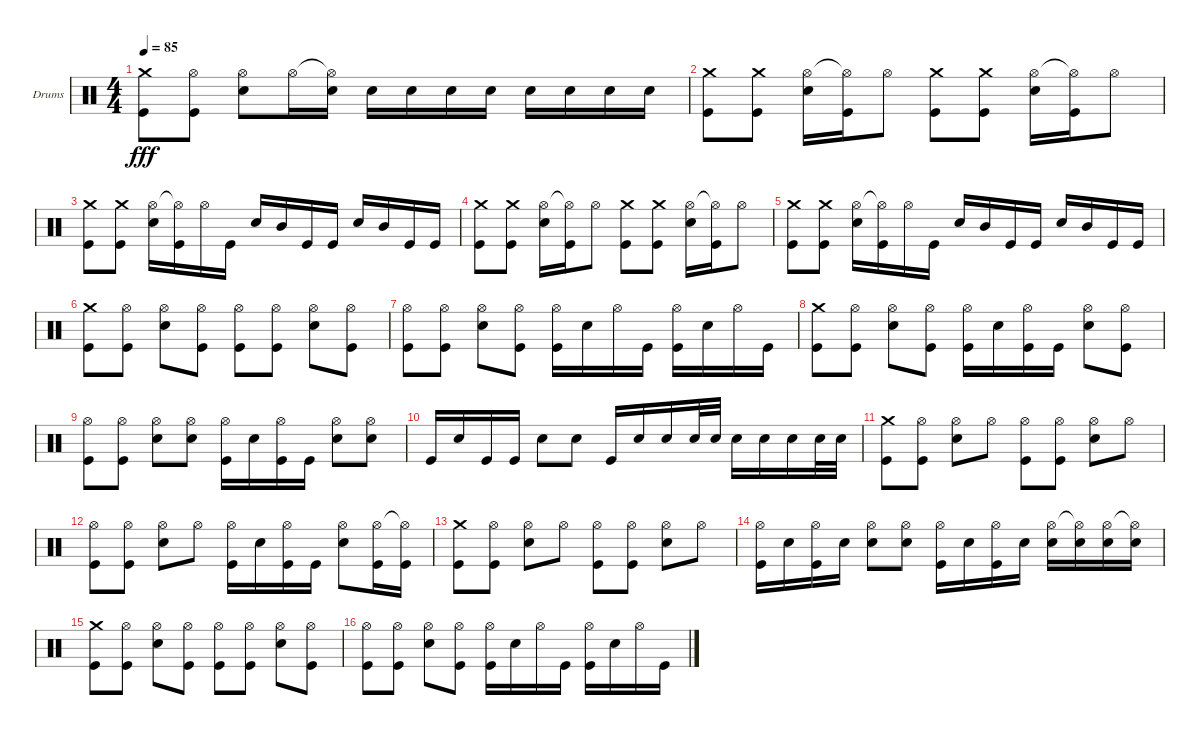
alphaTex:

\defaultSystemsLayout 4
\bracketExtendMode groupsimilarinstruments
\firstSystemTrackNameOrientation horizontal
\otherSystemsTrackNameOrientation horizontal
\track ("Drumkit" "Drums") {instrument percussion}
\staff {score}
\articulation defaults
\ts (4 4)
\tempo 85
\clef neutral
\scale
0.333333
\ks c
("Crash medium (hit)" "Kick (hit)").8{dy fff} ("Hi-Hat (open)" "Kick (hit)").8 ("Hi-Hat (open)" "Snare (hit) 2").8 "Hi-Hat (open)".16 ("Hi-Hat (open)"{t} "Snare (hit) 2").16 "Snare (hit) 2".16 "Snare (hit) 2".16 "Snare (hit) 2".16 "Snare (hit) 2".16 "Snare (hit) 2".16 "Snare (hit) 2".16 "Snare (hit) 2".16 "Snare (hit) 2".16 |
\scale
0.333333 ("Crash medium (hit)" "Kick (hit)").8 ("Crash medium (hit)" "Kick (hit)").8 ("Hi-Hat (open)" "Snare (hit) 2").16 ("Hi-Hat (open)"{t} "Kick (hit)").16 "Hi-Hat (open)".8 ("Crash medium (hit)" "Kick (hit)").8 ("Crash medium (hit)" "Kick (hit)").8 ("Hi-Hat (open)" "Snare (hit) 2").16 ("Hi-Hat (open)"{t} "Kick (hit)").16 "Hi-Hat (open)".8 |
\scale
0.333333 ("Crash medium (hit)" "Kick (hit)").8 ("Crash medium (hit)" "Kick (hit)").8 ("Hi-Hat (open)" "Snare (hit) 2").16 ("Hi-Hat (open)"{t} "Kick (hit)").16 "Hi-Hat (open)".16 "Kick (hit)".16 "Snare (hit) 2".16 "Mid Tom (hit)".16 "Kick (hit)".16 "Kick (hit)".16 "Snare (hit) 2".16 "Mid Tom (hit)".16 "Kick (hit)".16 "Kick (hit)".16 |
\scale
0.333333 ("Crash medium (hit)" "Kick (hit)").8 ("Crash medium (hit)" "Kick (hit)").8 ("Hi-Hat (open)" "Snare (hit) 2").16 ("Hi-Hat (open)"{t} "Kick (hit)").16 "Hi-Hat (open)".8 ("Crash medium (hit)" "Kick (hit)").8 ("Crash medium (hit)" "Kick (hit)").8 ("Hi-Hat (open)" "Snare (hit) 2").16 ("Hi-Hat (open)"{t} "Kick (hit)").16 "Hi-Hat (open)".8 |
\scale
0.333333 ("Crash medium (hit)" "Kick (hit)").8 ("Crash medium (hit)" "Kick (hit)").8 ("Hi-Hat (open)" "Snare (hit) 2").16 ("Hi-Hat (open)"{t} "Kick (hit)").16 "Hi-Hat (open)".16 "Kick (hit)".16 "Snare (hit) 2".16 "Mid Tom (hit)".16 "Kick (hit)".16 "Kick (hit)".16 "Snare (hit) 2".16 "Mid Tom (hit)".16 "Kick (hit)".16 "Kick (hit)".16 |
\scale
0.333333 ("Crash medium (hit)" "Kick (hit)").8 ("Hi-Hat (open)" "Kick (hit)").8 ("Hi-Hat (open)" "Snare (hit) 2").8 ("Hi-Hat (open)" "Kick (hit)").8 ("Hi-Hat (open)" "Kick (hit)").8 ("Hi-Hat (open)" "Kick (hit)").8 ("Hi-Hat (open)" "Snare (hit) 2").8 ("Hi-Hat (open)" "Kick (hit)").8 |
\scale
0.333333 ("Hi-Hat (open)" "Kick (hit)").8 ("Hi-Hat (open)" "Kick (hit)").8 ("Hi-Hat (open)" "Snare (hit) 2").8 ("Hi-Hat (open)" "Kick (hit)").8 ("Hi-Hat (open)" "Kick (hit)").16 "Snare (hit) 2".16 "Hi-Hat (open)".16 "Kick (hit)".16 ("Hi-Hat (open)" "Kick (hit)").16 "Snare (hit) 2".16 "Hi-Hat (open)".16 "Kick (hit)".16 |
\scale
0.333333 ("Crash medium (hit)" "Kick (hit)").8 ("Hi-Hat (open)" "Kick (hit)").8 ("Hi-Hat (open)" "Snare (hit) 2").8 ("Hi-Hat (open)" "Kick (hit)").8 ("Hi-Hat (open)" "Kick (hit)").16 "Snare (hit) 2".16 ("Hi-Hat (open)" "Kick (hit)").16 "Kick (hit)".16 ("Hi-Hat (open)" "Snare (hit) 2").8 ("Hi-Hat (open)" "Kick (hit)").8 |
\scale
0.333333 ("Hi-Hat (open)" "Kick (hit)").8 ("Hi-Hat (open)" "Kick (hit)").8 ("Hi-Hat (open)" "Snare (hit) 2").8 ("Hi-Hat (open)" "Snare (hit) 2").8 ("Hi-Hat (open)" "Kick (hit)").16 "Snare (hit) 2".16 ("Hi-Hat (open)" "Kick (hit)").16 "Kick (hit)".16 ("Hi-Hat (open)" "Snare (hit) 2").8 ("Hi-Hat (open)" "Snare (hit) 2").8 |
\scale
0.333333 "Kick (hit)".16 "Snare (hit) 2".16 "Kick (hit)".16 "Kick (hit)".16 "Snare (hit) 2".8 "Snare (hit) 2".8 "Kick (hit)".16 "Snare (hit) 2".16 "Snare (hit) 2".16 "Snare (hit) 2".32 "Snare (hit) 2".32 "Snare (hit) 2".16 "Snare (hit) 2".16 "Snare (hit) 2".16 "Snare (hit) 2".32 "Snare (hit) 2".32 |
\scale
0.333333 ("Crash medium (hit)" "Kick (hit)").8 ("Hi-Hat (open)" "Kick (hit)").8 ("Hi-Hat (open)" "Snare (hit) 2").8 "Hi-Hat (open)".8 ("Hi-Hat (open)" "Kick (hit)").8 ("Hi-Hat (open)" "Kick (hit)").8 ("Hi-Hat (open)" "Snare (hit) 2").8 "Hi-Hat (open)".8 |
\scale
0.333333 ("Hi-Hat (open)" "Kick (hit)").8 ("Hi-Hat (open)" "Kick (hit)").8 ("Hi-Hat (open)" "Snare (hit) 2").8 "Hi-Hat (open)".8 ("Hi-Hat (open)" "Kick (hit)").16 "Snare (hit) 2".16 ("Hi-Hat (open)" "Kick (hit)").16 "Kick (hit)".16 ("Hi-Hat (open)" "Snare (hit) 2").8 ("Hi-Hat (open)" "Kick (hit)").16 ("Hi-Hat (open)"{t} "Kick (hit)").16 |
\scale
0.333333 ("Crash medium (hit)" "Kick (hit)").8 ("Hi-Hat (open)" "Kick (hit)").8 ("Hi-Hat (open)" "Snare (hit) 2").8 "Hi-Hat (open)".8 ("Hi-Hat (open)" "Kick (hit)").8 ("Hi-Hat (open)" "Kick (hit)").8 ("Hi-Hat (open)" "Snare (hit) 2").8 "Hi-Hat (open)".8 |
\scale
0.333333 ("Hi-Hat (open)" "Kick (hit)").16 "Snare (hit) 2".16 ("Hi-Hat (open)" "Kick (hit)").16 "Snare (hit) 2".16 ("Hi-Hat (open)" "Snare (hit) 2").8 ("Hi-Hat (open)" "Snare (hit) 2").8 ("Hi-Hat (open)" "Kick (hit)").16 "Snare (hit) 2".16 ("Hi-Hat (open)" "Kick (hit)").16 "Snare (hit) 2".16 ("Hi-Hat (open)" "Snare (hit) 2").16 ("Hi-Hat (open)"{t} "Snare (hit) 2").16 ("Hi-Hat (open)" "Snare (hit) 2").16 ("Hi-Hat (open)"{t} "Snare (hit) 2").16 |
\scale
0.333333 ("Crash medium (hit)" "Kick (hit)").8 ("Hi-Hat (open)" "Kick (hit)").8 ("Hi-Hat (open)" "Snare (hit) 2").8 ("Hi-Hat (open)" "Kick (hit)").8 ("Hi-Hat (open)" "Kick (hit)").8 ("Hi-Hat (open)" "Kick (hit)").8 ("Hi-Hat (open)" "Snare (hit) 2").8 ("Hi-Hat (open)" "Kick (hit)").8 |
\scale
0.333333 ("Hi-Hat (open)" "Kick (hit)").8 ("Hi-Hat (open)" "Kick (hit)").8 ("Hi-Hat (open)" "Snare (hit) 2").8 ("Hi-Hat (open)" "Kick (hit)").8 ("Hi-Hat (open)" "Kick (hit)").16 "Snare (hit) 2".16 "Hi-Hat (open)".16 "Kick (hit)".16 ("Hi-Hat (open)" "Kick (hit)").16 "Snare (hit) 2".16 "Hi-Hat (open)".16 "Kick (hit)".16
